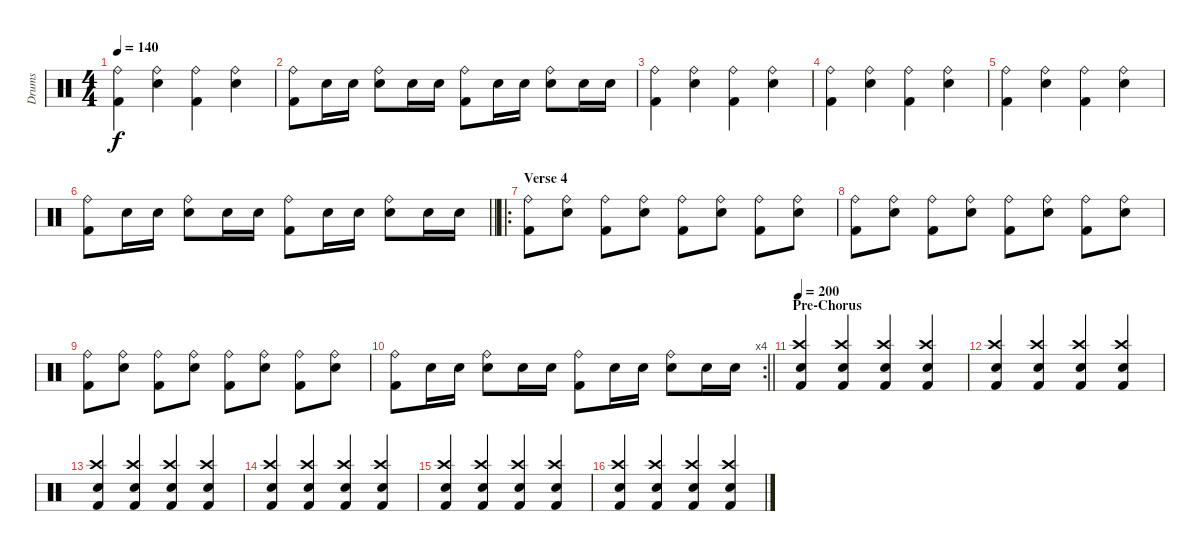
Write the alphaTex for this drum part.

\track ("Drums" "Drums") {instrument percussion}
\staff {score}
\articulation defaults
\ts (4 4)
\tempo 140
\clef neutral
\ks c
("Ride (bell)" "Kick (hit) 2").4{dy f} ("Ride (bell)" "Snare (hit) 2").4 ("Ride (bell)" "Kick (hit) 2").4 ("Ride (bell)" "Snare (hit) 2").4 |
("Ride (bell)" "Kick (hit) 2").8 "Snare (hit) 2".16 "Snare (hit) 2".16 ("Ride (bell)" "Snare (hit) 2").8 "Snare (hit) 2".16 "Snare (hit) 2".16 ("Ride (bell)" "Kick (hit) 2").8 "Snare (hit) 2".16 "Snare (hit) 2".16 ("Ride (bell)" "Snare (hit) 2").8 "Snare (hit) 2".16 "Snare (hit) 2".16 |
("Ride (bell)" "Kick (hit) 2").4 ("Ride (bell)" "Snare (hit) 2").4 ("Ride (bell)" "Kick (hit) 2").4 ("Ride (bell)" "Snare (hit) 2").4 |
("Ride (bell)" "Kick (hit) 2").4 ("Ride (bell)" "Snare (hit) 2").4 ("Ride (bell)" "Kick (hit) 2").4 ("Ride (bell)" "Snare (hit) 2").4 |
("Ride (bell)" "Kick (hit) 2").4 ("Ride (bell)" "Snare (hit) 2").4 ("Ride (bell)" "Kick (hit) 2").4 ("Ride (bell)" "Snare (hit) 2").4 |
\barLineRight lightlight
("Ride (bell)" "Kick (hit) 2").8 "Snare (hit) 2".16 "Snare (hit) 2".16 ("Ride (bell)" "Snare (hit) 2").8 "Snare (hit) 2".16 "Snare (hit) 2".16 ("Ride (bell)" "Kick (hit) 2").8 "Snare (hit) 2".16 "Snare (hit) 2".16 ("Ride (bell)" "Snare (hit) 2").8 "Snare (hit) 2".16 "Snare (hit) 2".16 |
\ro
\section ("" "Verse 4")
("Ride (bell)" "Kick (hit) 2").8 ("Ride (bell)" "Snare (hit) 2").8 ("Ride (bell)" "Kick (hit) 2").8 ("Ride (bell)" "Snare (hit) 2").8 ("Ride (bell)" "Kick (hit) 2").8 ("Ride (bell)" "Snare (hit) 2").8 ("Ride (bell)" "Kick (hit) 2").8 ("Ride (bell)" "Snare (hit) 2").8 |
("Ride (bell)" "Kick (hit) 2").8 ("Ride (bell)" "Snare (hit) 2").8 ("Ride (bell)" "Kick (hit) 2").8 ("Ride (bell)" "Snare (hit) 2").8 ("Ride (bell)" "Kick (hit) 2").8 ("Ride (bell)" "Snare (hit) 2").8 ("Ride (bell)" "Kick (hit) 2").8 ("Ride (bell)" "Snare (hit) 2").8 |
("Ride (bell)" "Kick (hit) 2").8 ("Ride (bell)" "Snare (hit) 2").8 ("Ride (bell)" "Kick (hit) 2").8 ("Ride (bell)" "Snare (hit) 2").8 ("Ride (bell)" "Kick (hit) 2").8 ("Ride (bell)" "Snare (hit) 2").8 ("Ride (bell)" "Kick (hit) 2").8 ("Ride (bell)" "Snare (hit) 2").8 |
\rc 4
\barLineRight lightlight
("Ride (bell)" "Kick (hit) 2").8 "Snare (hit) 2".16 "Snare (hit) 2".16 ("Ride (bell)" "Snare (hit) 2").8 "Snare (hit) 2".16 "Snare (hit) 2".16 ("Ride (bell)" "Kick (hit) 2").8 "Snare (hit) 2".16 "Snare (hit) 2".16 ("Ride (bell)" "Snare (hit) 2").8 "Snare (hit) 2".16 "Snare (hit) 2".16 |
\section ("" "Pre-Chorus")
\tempo 200
("Crash high (hit)" "Electric Snare (hit)" "Kick (hit) 2").4 ("Crash high (hit)" "Electric Snare (hit)" "Kick (hit) 2").4 ("Crash high (hit)" "Electric Snare (hit)" "Kick (hit) 2").4 ("Crash high (hit)" "Electric Snare (hit)" "Kick (hit) 2").4 |
("Crash high (hit)" "Electric Snare (hit)" "Kick (hit) 2").4 ("Crash high (hit)" "Electric Snare (hit)" "Kick (hit) 2").4 ("Crash high (hit)" "Electric Snare (hit)" "Kick (hit) 2").4 ("Crash high (hit)" "Electric Snare (hit)" "Kick (hit) 2").4 |
("Crash high (hit)" "Electric Snare (hit)" "Kick (hit) 2").4 ("Crash high (hit)" "Electric Snare (hit)" "Kick (hit) 2").4 ("Crash high (hit)" "Electric Snare (hit)" "Kick (hit) 2").4 ("Crash high (hit)" "Electric Snare (hit)" "Kick (hit) 2").4 |
("Crash high (hit)" "Electric Snare (hit)" "Kick (hit) 2").4 ("Crash high (hit)" "Electric Snare (hit)" "Kick (hit) 2").4 ("Crash high (hit)" "Electric Snare (hit)" "Kick (hit) 2").4 ("Crash high (hit)" "Electric Snare (hit)" "Kick (hit) 2").4 |
("Crash high (hit)" "Electric Snare (hit)" "Kick (hit) 2").4 ("Crash high (hit)" "Electric Snare (hit)" "Kick (hit) 2").4 ("Crash high (hit)" "Electric Snare (hit)" "Kick (hit) 2").4 ("Crash high (hit)" "Electric Snare (hit)" "Kick (hit) 2").4 |
("Crash high (hit)" "Electric Snare (hit)" "Kick (hit) 2").4 ("Crash high (hit)" "Electric Snare (hit)" "Kick (hit) 2").4 ("Crash high (hit)" "Electric Snare (hit)" "Kick (hit) 2").4 ("Crash high (hit)" "Electric Snare (hit)" "Kick (hit) 2").4
